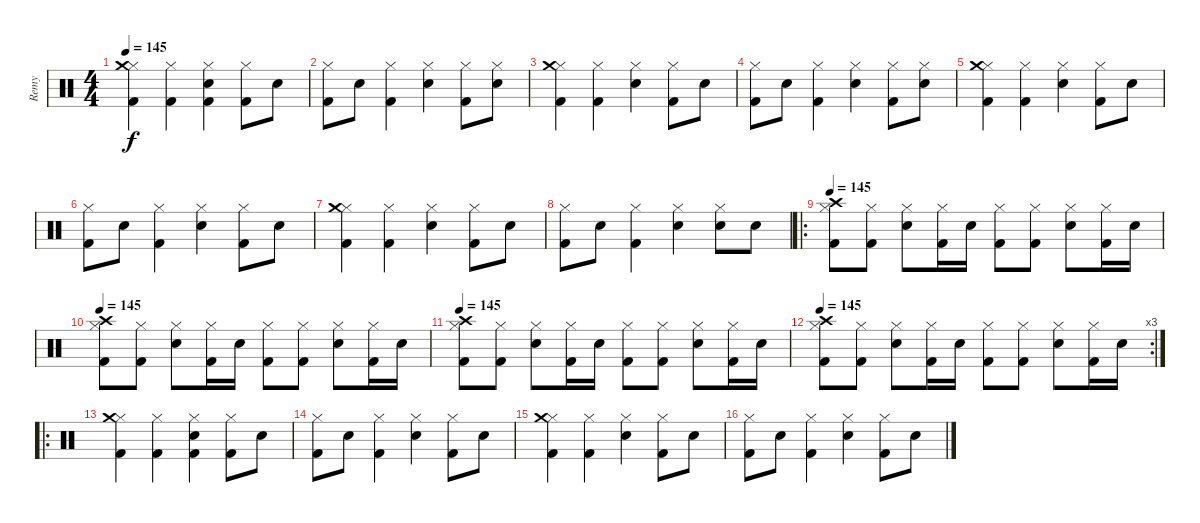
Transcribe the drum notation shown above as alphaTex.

\track ("Remy" "Remy") {instrument percussion}
\staff {score}
\articulation defaults
\ts (4 4)
\tempo 145
\clef neutral
\ks c
("Hi-Hat (closed)" "Kick (hit) 2" "Crash medium (hit)").4{dy f} ("Hi-Hat (closed)" "Kick (hit) 2").4 ("Hi-Hat (closed)" "Kick (hit) 2" "Snare (hit) 2").4 ("Hi-Hat (closed)" "Kick (hit) 2").8 "Snare (hit) 2".8 |
("Hi-Hat (closed)" "Kick (hit) 2").8 "Snare (hit) 2".8 ("Hi-Hat (closed)" "Kick (hit) 2").4 ("Hi-Hat (closed)" "Snare (hit) 2").4 ("Hi-Hat (closed)" "Kick (hit) 2").8 ("Hi-Hat (closed)" "Snare (hit) 2").8 |
("Hi-Hat (closed)" "Kick (hit) 2" "Crash medium (hit)").4 ("Hi-Hat (closed)" "Kick (hit) 2").4 ("Hi-Hat (closed)" "Snare (hit) 2").4 ("Hi-Hat (closed)" "Kick (hit) 2").8 "Snare (hit) 2".8 |
("Hi-Hat (closed)" "Kick (hit) 2").8 "Snare (hit) 2".8 ("Hi-Hat (closed)" "Kick (hit) 2").4 ("Hi-Hat (closed)" "Snare (hit) 2").4 ("Hi-Hat (closed)" "Kick (hit) 2").8 ("Hi-Hat (closed)" "Snare (hit) 2").8 |
("Hi-Hat (closed)" "Kick (hit) 2" "Crash medium (hit)").4 ("Hi-Hat (closed)" "Kick (hit) 2").4 ("Hi-Hat (closed)" "Snare (hit) 2").4 ("Hi-Hat (closed)" "Kick (hit) 2").8 "Snare (hit) 2".8 |
("Hi-Hat (closed)" "Kick (hit) 2").8 "Snare (hit) 2".8 ("Hi-Hat (closed)" "Kick (hit) 2").4 ("Hi-Hat (closed)" "Snare (hit) 2").4 ("Hi-Hat (closed)" "Kick (hit) 2").8 "Snare (hit) 2".8 |
("Hi-Hat (closed)" "Kick (hit) 2" "Crash medium (hit)").4 ("Hi-Hat (closed)" "Kick (hit) 2").4 ("Hi-Hat (closed)" "Snare (hit) 2").4 ("Hi-Hat (closed)" "Kick (hit) 2").8 "Snare (hit) 2".8 |
("Hi-Hat (closed)" "Kick (hit) 2").8 "Snare (hit) 2".8 ("Hi-Hat (closed)" "Kick (hit) 2").4 ("Hi-Hat (closed)" "Snare (hit) 2").4 ("Hi-Hat (closed)" "Snare (hit) 2").8 "Snare (hit) 2".8 |
\ro
\tempo 145
("Hi-Hat (closed)" "Kick (hit) 2" "Crash high (hit)").8 ("Hi-Hat (closed)" "Kick (hit) 2").8 ("Hi-Hat (closed)" "Snare (hit) 2").8 ("Hi-Hat (closed)" "Kick (hit) 2").16 "Snare (hit) 2".16 ("Hi-Hat (closed)" "Kick (hit) 2").8 ("Hi-Hat (closed)" "Kick (hit) 2").8 ("Hi-Hat (closed)" "Snare (hit) 2").8 ("Hi-Hat (closed)" "Kick (hit) 2").16 "Snare (hit) 2".16 |
\tempo 145
("Hi-Hat (closed)" "Kick (hit) 2" "Crash high (hit)").8 ("Hi-Hat (closed)" "Kick (hit) 2").8 ("Hi-Hat (closed)" "Snare (hit) 2").8 ("Hi-Hat (closed)" "Kick (hit) 2").16 "Snare (hit) 2".16 ("Hi-Hat (closed)" "Kick (hit) 2").8 ("Hi-Hat (closed)" "Kick (hit) 2").8 ("Hi-Hat (closed)" "Snare (hit) 2").8 ("Hi-Hat (closed)" "Kick (hit) 2").16 "Snare (hit) 2".16 |
\tempo 145
("Hi-Hat (closed)" "Kick (hit) 2" "Crash high (hit)").8 ("Hi-Hat (closed)" "Kick (hit) 2").8 ("Hi-Hat (closed)" "Snare (hit) 2").8 ("Hi-Hat (closed)" "Kick (hit) 2").16 "Snare (hit) 2".16 ("Hi-Hat (closed)" "Kick (hit) 2").8 ("Hi-Hat (closed)" "Kick (hit) 2").8 ("Hi-Hat (closed)" "Snare (hit) 2").8 ("Hi-Hat (closed)" "Kick (hit) 2").16 "Snare (hit) 2".16 |
\rc 3
\tempo 145
("Hi-Hat (closed)" "Kick (hit) 2" "Crash high (hit)").8 ("Hi-Hat (closed)" "Kick (hit) 2").8 ("Hi-Hat (closed)" "Snare (hit) 2").8 ("Hi-Hat (closed)" "Kick (hit) 2").16 "Snare (hit) 2".16 ("Hi-Hat (closed)" "Kick (hit) 2").8 ("Hi-Hat (closed)" "Kick (hit) 2").8 ("Hi-Hat (closed)" "Snare (hit) 2").8 ("Hi-Hat (closed)" "Kick (hit) 2").16 "Snare (hit) 2".16 |
\ro
("Hi-Hat (closed)" "Kick (hit) 2" "Crash medium (hit)").4 ("Hi-Hat (closed)" "Kick (hit) 2").4 ("Hi-Hat (closed)" "Kick (hit) 2" "Snare (hit) 2").4 ("Hi-Hat (closed)" "Kick (hit) 2").8 "Snare (hit) 2".8 |
("Hi-Hat (closed)" "Kick (hit) 2").8 "Snare (hit) 2".8 ("Hi-Hat (closed)" "Kick (hit) 2").4 ("Hi-Hat (closed)" "Snare (hit) 2").4 ("Hi-Hat (closed)" "Kick (hit) 2").8 "Snare (hit) 2".8 |
("Hi-Hat (closed)" "Kick (hit) 2" "Crash medium (hit)").4 ("Hi-Hat (closed)" "Kick (hit) 2").4 ("Hi-Hat (closed)" "Snare (hit) 2").4 ("Hi-Hat (closed)" "Kick (hit) 2").8 "Snare (hit) 2".8 |
("Hi-Hat (closed)" "Kick (hit) 2").8 "Snare (hit) 2".8 ("Hi-Hat (closed)" "Kick (hit) 2").4 ("Hi-Hat (closed)" "Snare (hit) 2").4 ("Hi-Hat (closed)" "Kick (hit) 2").8 "Snare (hit) 2".8
